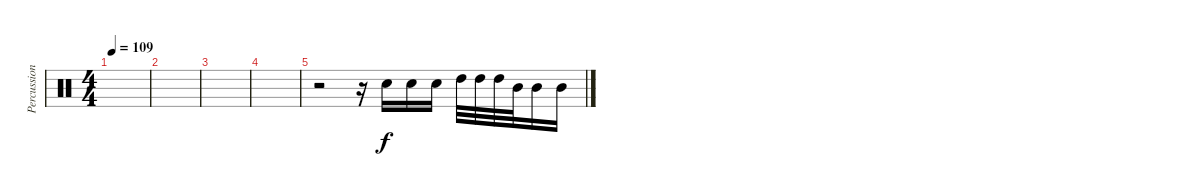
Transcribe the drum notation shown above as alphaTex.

\track ("Percussions" "Percussion") {instrument percussion}
\staff {score}
\articulation defaults
\ts (4 4)
\tempo 109
\clef neutral
\ks c
|
|
|
|
r.2 r.16 "Electric Snare (hit)".16 "Electric Snare (hit)".16 "Electric Snare (hit)".16 "High Tom (hit)".32 "High Tom (hit)".32 "High Tom (hit)".32 "Mid Tom (hit)".32 "Mid Tom (hit)".16 "Mid Tom (hit)".16
